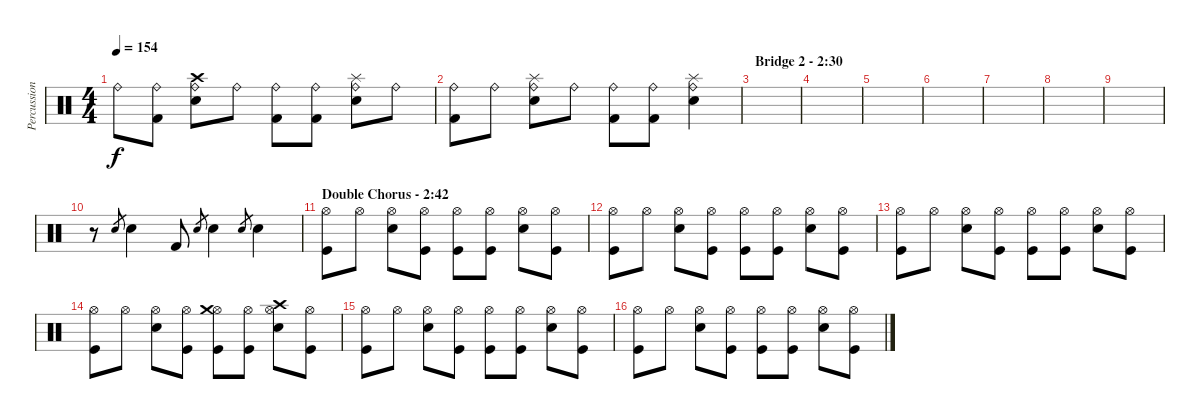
\track ("Percussioni" "Percussion") {instrument percussion}
\staff {score}
\articulation defaults
\ts (4 4)
\tempo 154
\clef neutral
\ks c "Ride (bell)".8{dy f}
("Ride (bell)" "Kick (hit) 2").8 ("Ride (bell)" "Electric Snare (hit)" "Crash high (hit)").8 "Ride (bell)".8 ("Ride (bell)" "Kick (hit) 2").8 ("Ride (bell)" "Kick (hit) 2").8 ("Ride (bell)" "Electric Snare (hit)" "Splash (hit)").8 "Ride (bell)".8 |
("Ride (bell)" "Kick (hit) 2").8 "Ride (bell)".8 ("Ride (bell)" "Electric Snare (hit)" "Splash (hit)").8 "Ride (bell)".8 ("Ride (bell)" "Kick (hit) 2").8 ("Ride (bell)" "Kick (hit) 2").8 ("Ride (bell)" "Electric Snare (hit)" "Splash (hit)").4 |
\section ("" "Bridge 2 - 2:30")
|
|
|
|
|
|
|
r.8 "Electric Snare (hit)".8{gr} "Electric Snare (hit)".4 "Kick (hit) 2".8 "Electric Snare (hit)".8{gr} "Electric Snare (hit)".4 "Electric Snare (hit)".8{gr} "Electric Snare (hit)".4 |
\section ("" "Double Chorus - 2:42")
("Hi-Hat (open)" "Kick (hit)").8 "Hi-Hat (open)".8 ("Hi-Hat (open)" "Electric Snare (hit)").8 ("Hi-Hat (open)" "Kick (hit)").8 ("Hi-Hat (open)" "Kick (hit)").8 ("Hi-Hat (open)" "Kick (hit)").8 ("Hi-Hat (open)" "Electric Snare (hit)").8 ("Hi-Hat (open)" "Kick (hit)").8 |
("Hi-Hat (open)" "Kick (hit)").8 "Hi-Hat (open)".8 ("Hi-Hat (open)" "Electric Snare (hit)").8 ("Hi-Hat (open)" "Kick (hit)").8 ("Hi-Hat (open)" "Kick (hit)").8 ("Hi-Hat (open)" "Kick (hit)").8 ("Hi-Hat (open)" "Electric Snare (hit)").8 ("Hi-Hat (open)" "Kick (hit)").8 |
("Hi-Hat (open)" "Kick (hit)").8 "Hi-Hat (open)".8 ("Hi-Hat (open)" "Electric Snare (hit)").8 ("Hi-Hat (open)" "Kick (hit)").8 ("Hi-Hat (open)" "Kick (hit)").8 ("Hi-Hat (open)" "Kick (hit)").8 ("Hi-Hat (open)" "Electric Snare (hit)").8 ("Hi-Hat (open)" "Kick (hit)").8 |
("Hi-Hat (open)" "Kick (hit)").8 "Hi-Hat (open)".8 ("Hi-Hat (open)" "Electric Snare (hit)").8 ("Hi-Hat (open)" "Kick (hit)").8 ("Hi-Hat (open)" "Crash medium (hit)" "Kick (hit)").8 ("Hi-Hat (open)" "Kick (hit)").8 ("Hi-Hat (open)" "Crash high (hit)" "Electric Snare (hit)").8 ("Hi-Hat (open)" "Kick (hit)").8 |
("Hi-Hat (open)" "Kick (hit)").8 "Hi-Hat (open)".8 ("Hi-Hat (open)" "Electric Snare (hit)").8 ("Hi-Hat (open)" "Kick (hit)").8 ("Hi-Hat (open)" "Kick (hit)").8 ("Hi-Hat (open)" "Kick (hit)").8 ("Hi-Hat (open)" "Electric Snare (hit)").8 ("Hi-Hat (open)" "Kick (hit)").8 |
("Hi-Hat (open)" "Kick (hit)").8 "Hi-Hat (open)".8 ("Hi-Hat (open)" "Electric Snare (hit)").8 ("Hi-Hat (open)" "Kick (hit)").8 ("Hi-Hat (open)" "Kick (hit)").8 ("Hi-Hat (open)" "Kick (hit)").8 ("Hi-Hat (open)" "Electric Snare (hit)").8 ("Hi-Hat (open)" "Kick (hit)").8
